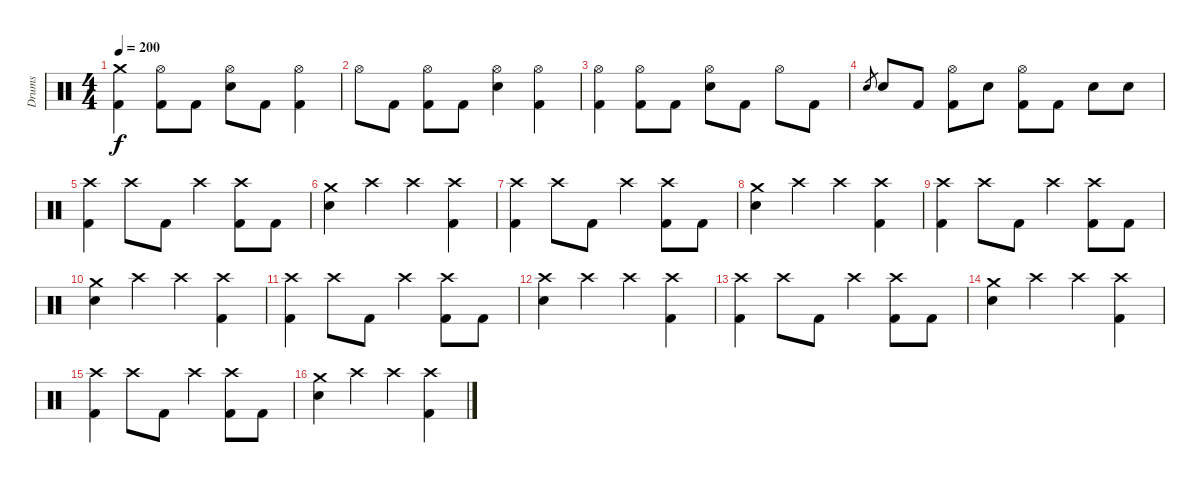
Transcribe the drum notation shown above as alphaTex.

\track ("Drums" "Drums") {instrument percussion}
\staff {score}
\articulation defaults
\ts (4 4)
\tempo 200
\clef neutral
\ks c
("Crash medium (hit)" "Kick (hit) 2").4{dy f} ("Hi-Hat (open)" "Kick (hit) 2").8 "Kick (hit) 2".8 ("Hi-Hat (open)" "Electric Snare (hit)").8 "Kick (hit) 2".8 ("Hi-Hat (open)" "Kick (hit) 2").4 |
"Hi-Hat (open)".8 "Kick (hit) 2".8 ("Hi-Hat (open)" "Kick (hit) 2").8 "Kick (hit) 2".8 ("Hi-Hat (open)" "Electric Snare (hit)").4 ("Hi-Hat (open)" "Kick (hit) 2").4 |
("Hi-Hat (open)" "Kick (hit) 2").4 ("Hi-Hat (open)" "Kick (hit) 2").8 "Kick (hit) 2".8 ("Hi-Hat (open)" "Electric Snare (hit)").8 "Kick (hit) 2".8 "Hi-Hat (open)".8 "Kick (hit) 2".8 |
"Electric Snare (hit)".8{gr} "Electric Snare (hit)".8 "Kick (hit) 2".8 ("Hi-Hat (open)" "Kick (hit) 2").8 "Electric Snare (hit)".8 ("Hi-Hat (open)" "Kick (hit) 2").8 "Kick (hit) 2".8 "Electric Snare (hit)".8 "Electric Snare (hit)".8 |
("Crash high (hit)" "Kick (hit) 2").4 "Crash high (hit)".8 "Kick (hit) 2".8 "Crash high (hit)".4 ("Kick (hit) 2" "Crash high (hit)").8 "Kick (hit) 2".8 |
("Electric Snare (hit)" "Crash medium (hit)").4 "Crash high (hit)".4 "Crash high (hit)".4 ("Crash high (hit)" "Kick (hit) 2").4 |
("Crash high (hit)" "Kick (hit) 2").4 "Crash high (hit)".8 "Kick (hit) 2".8 "Crash high (hit)".4 ("Kick (hit) 2" "Crash high (hit)").8 "Kick (hit) 2".8 |
("Crash medium (hit)" "Electric Snare (hit)").4 "Crash high (hit)".4 "Crash high (hit)".4 ("Crash high (hit)" "Kick (hit) 2").4 |
("Crash high (hit)" "Kick (hit) 2").4 "Crash high (hit)".8 "Kick (hit) 2".8 "Crash high (hit)".4 ("Kick (hit) 2" "Crash high (hit)").8 "Kick (hit) 2".8 |
("Crash medium (hit)" "Electric Snare (hit)").4 "Crash high (hit)".4 "Crash high (hit)".4 ("Crash high (hit)" "Kick (hit) 2").4 |
("Crash high (hit)" "Kick (hit) 2").4 "Crash high (hit)".8 "Kick (hit) 2".8 "Crash high (hit)".4 ("Kick (hit) 2" "Crash high (hit)").8 "Kick (hit) 2".8 |
("Crash high (hit)" "Electric Snare (hit)").4 "Crash high (hit)".4 "Crash high (hit)".4 ("Crash high (hit)" "Kick (hit) 2").4 |
("Crash high (hit)" "Kick (hit) 2").4 "Crash high (hit)".8 "Kick (hit) 2".8 "Crash high (hit)".4 ("Kick (hit) 2" "Crash high (hit)").8 "Kick (hit) 2".8 |
("Electric Snare (hit)" "Crash medium (hit)").4 "Crash high (hit)".4 "Crash high (hit)".4 ("Crash high (hit)" "Kick (hit) 2").4 |
("Crash high (hit)" "Kick (hit) 2").4 "Crash high (hit)".8 "Kick (hit) 2".8 "Crash high (hit)".4 ("Kick (hit) 2" "Crash high (hit)").8 "Kick (hit) 2".8 |
("Crash medium (hit)" "Electric Snare (hit)").4 "Crash high (hit)".4 "Crash high (hit)".4 ("Crash high (hit)" "Kick (hit) 2").4
